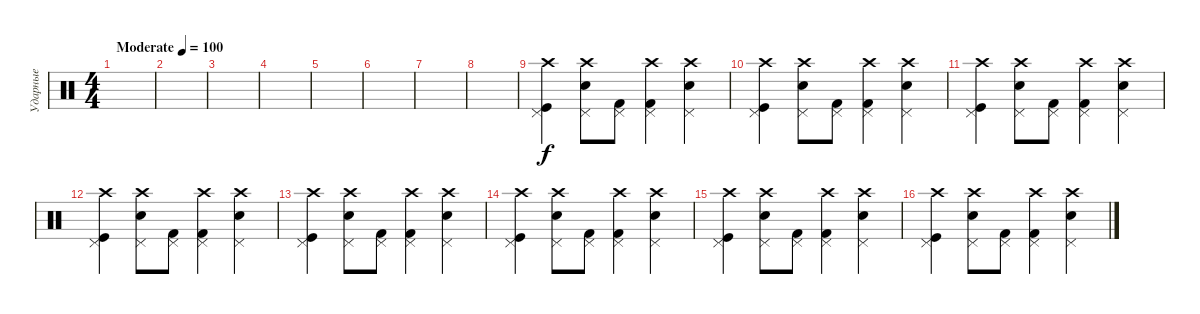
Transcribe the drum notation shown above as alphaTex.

\track ("Ударные" "Ударные") {instrument percussion}
\staff {score}
\articulation defaults
\ts (4 4)
\tempo (100 "Moderate")
\clef neutral
\ks c
|
|
|
|
|
|
|
|
("Crash high (hit)" "Pedal Hi-Hat (hit)" "Kick (hit)").4 ("Crash high (hit)" "Pedal Hi-Hat (hit)" "Electric Snare (hit)").8 ("Pedal Hi-Hat (hit)" "Kick (hit) 2").8 ("Crash high (hit)" "Pedal Hi-Hat (hit)" "Kick (hit) 2").4 ("Crash high (hit)" "Pedal Hi-Hat (hit)" "Electric Snare (hit)").4 |
("Crash high (hit)" "Pedal Hi-Hat (hit)" "Kick (hit)").4 ("Crash high (hit)" "Pedal Hi-Hat (hit)" "Electric Snare (hit)").8 ("Pedal Hi-Hat (hit)" "Kick (hit) 2").8 ("Crash high (hit)" "Pedal Hi-Hat (hit)" "Kick (hit) 2").4 ("Crash high (hit)" "Pedal Hi-Hat (hit)" "Electric Snare (hit)").4 |
("Crash high (hit)" "Pedal Hi-Hat (hit)" "Kick (hit)").4 ("Crash high (hit)" "Pedal Hi-Hat (hit)" "Electric Snare (hit)").8 ("Pedal Hi-Hat (hit)" "Kick (hit) 2").8 ("Crash high (hit)" "Pedal Hi-Hat (hit)" "Kick (hit) 2").4 ("Crash high (hit)" "Pedal Hi-Hat (hit)" "Electric Snare (hit)").4 |
("Crash high (hit)" "Pedal Hi-Hat (hit)" "Kick (hit)").4 ("Crash high (hit)" "Pedal Hi-Hat (hit)" "Electric Snare (hit)").8 ("Pedal Hi-Hat (hit)" "Kick (hit) 2").8 ("Crash high (hit)" "Pedal Hi-Hat (hit)" "Kick (hit) 2").4 ("Crash high (hit)" "Pedal Hi-Hat (hit)" "Electric Snare (hit)").4 |
("Crash high (hit)" "Pedal Hi-Hat (hit)" "Kick (hit)").4 ("Crash high (hit)" "Pedal Hi-Hat (hit)" "Electric Snare (hit)").8 ("Pedal Hi-Hat (hit)" "Kick (hit) 2").8 ("Crash high (hit)" "Pedal Hi-Hat (hit)" "Kick (hit) 2").4 ("Crash high (hit)" "Pedal Hi-Hat (hit)" "Electric Snare (hit)").4 |
("Crash high (hit)" "Pedal Hi-Hat (hit)" "Kick (hit)").4 ("Crash high (hit)" "Pedal Hi-Hat (hit)" "Electric Snare (hit)").8 ("Pedal Hi-Hat (hit)" "Kick (hit) 2").8 ("Crash high (hit)" "Pedal Hi-Hat (hit)" "Kick (hit) 2").4 ("Crash high (hit)" "Pedal Hi-Hat (hit)" "Electric Snare (hit)").4 |
("Crash high (hit)" "Pedal Hi-Hat (hit)" "Kick (hit)").4 ("Crash high (hit)" "Pedal Hi-Hat (hit)" "Electric Snare (hit)").8 ("Pedal Hi-Hat (hit)" "Kick (hit) 2").8 ("Crash high (hit)" "Pedal Hi-Hat (hit)" "Kick (hit) 2").4 ("Crash high (hit)" "Pedal Hi-Hat (hit)" "Electric Snare (hit)").4 |
("Crash high (hit)" "Pedal Hi-Hat (hit)" "Kick (hit)").4 ("Crash high (hit)" "Pedal Hi-Hat (hit)" "Electric Snare (hit)").8 ("Pedal Hi-Hat (hit)" "Kick (hit) 2").8 ("Crash high (hit)" "Pedal Hi-Hat (hit)" "Kick (hit) 2").4 ("Crash high (hit)" "Pedal Hi-Hat (hit)" "Electric Snare (hit)").4
